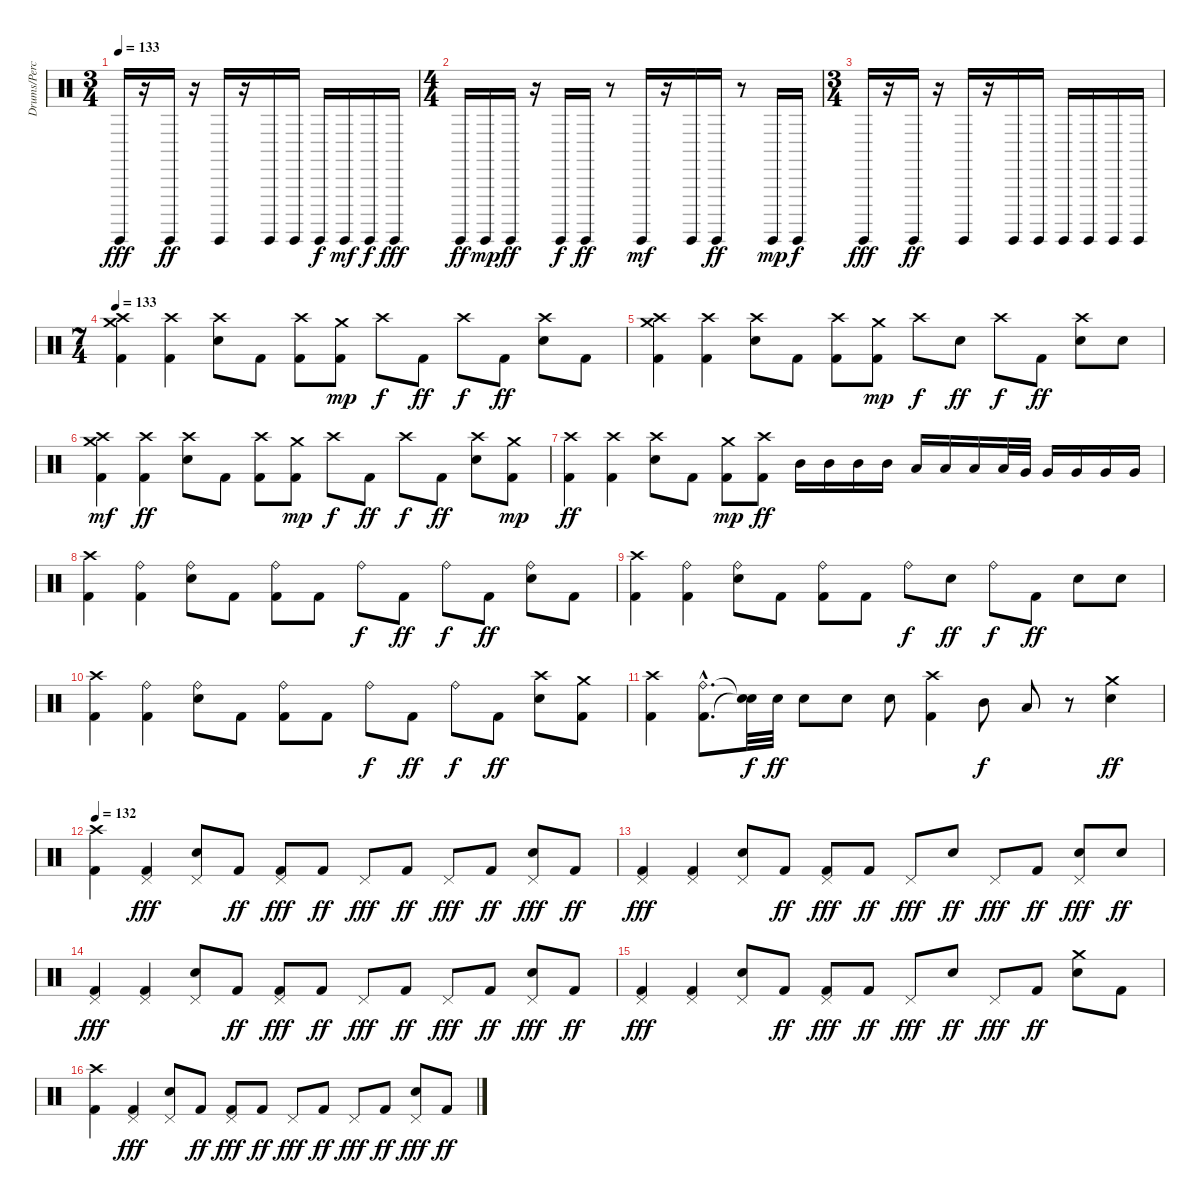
\track ("Drums/Percussion" "Drums/Perc") {instrument percussion}
\staff {score}
\articulation defaults
\ts (3 4)
\tempo 133
\clef neutral
\ks c "Guiro (hit)".16{dy fff}
r.16 "Guiro (hit)".16{dy ff} r.16 "Guiro (hit)".16 r.16 "Guiro (hit)".16 "Guiro (hit)".16 "Guiro (hit)".16{dy f} "Guiro (hit)".16{dy mf} "Guiro (hit)".16{dy f} "Guiro (hit)".16{dy fff} |
\ts (4 4)
"Guiro (hit)".16{dy ff} "Guiro (hit)".16{dy mp} "Guiro (hit)".16{dy ff} r.16 "Guiro (hit)".16{dy f} "Guiro (hit)".16{dy ff} r.8 "Guiro (hit)".16{dy mf} r.16 "Guiro (hit)".16 "Guiro (hit)".16{dy ff} r.8 "Guiro (hit)".16{dy mp} "Guiro (hit)".16{dy f} |
\ts (3 4)
"Guiro (hit)".16{dy fff} r.16 "Guiro (hit)".16{dy ff} r.16 "Guiro (hit)".16 r.16 "Guiro (hit)".16 "Guiro (hit)".16 "Guiro (hit)".16 "Guiro (hit)".16 "Guiro (hit)".16 "Guiro (hit)".16 |
\ts (7 4)
\tempo 133
("Kick (hit) 2" "Crash high (hit)" "Crash medium (hit)").4 ("Kick (hit) 2" "Crash high (hit)").4 ("Snare (hit) 2" "Crash high (hit)").8 "Kick (hit) 2".8 ("Kick (hit) 2" "Crash high (hit)").8 ("Kick (hit) 2" "Crash medium (hit)").8{dy mp} "Crash high (hit)".8{dy f} "Kick (hit) 2".8{dy ff} "Crash high (hit)".8{dy f} "Kick (hit) 2".8{dy ff} ("Snare (hit) 2" "Crash high (hit)").8 "Kick (hit) 2".8 |
("Kick (hit) 2" "Crash high (hit)" "Crash medium (hit)").4 ("Kick (hit) 2" "Crash high (hit)").4 ("Snare (hit) 2" "Crash high (hit)").8 "Kick (hit) 2".8 ("Kick (hit) 2" "Crash high (hit)").8 ("Kick (hit) 2" "Crash medium (hit)").8{dy mp} "Crash high (hit)".8{dy f} "Snare (hit) 2".8{dy ff} "Crash high (hit)".8{dy f} "Kick (hit) 2".8{dy ff} ("Snare (hit) 2" "Crash high (hit)").8 "Snare (hit) 2".8 |
("Kick (hit) 2" "Crash high (hit)" "Crash medium (hit)").4{dy mf} ("Kick (hit) 2" "Crash high (hit)").4{dy ff} ("Snare (hit) 2" "Crash high (hit)").8 "Kick (hit) 2".8 ("Kick (hit) 2" "Crash high (hit)").8 ("Kick (hit) 2" "Crash medium (hit)").8{dy mp} "Crash high (hit)".8{dy f} "Kick (hit) 2".8{dy ff} "Crash high (hit)".8{dy f} "Kick (hit) 2".8{dy ff} ("Snare (hit) 2" "Crash high (hit)").8 ("Kick (hit) 2" "Crash medium (hit)").8{dy mp} |
("Kick (hit) 2" "Crash high (hit)").4{dy ff} ("Kick (hit) 2" "Crash high (hit)").4 ("Snare (hit) 2" "Crash high (hit)").8 "Kick (hit) 2".8 ("Kick (hit) 2" "Crash medium (hit)").8{dy mp} ("Kick (hit) 2" "Crash high (hit)").8{dy ff} "Mid Tom (hit)".16 "Mid Tom (hit)".16 "Mid Tom (hit)".16 "Mid Tom (hit)".16 "Low Tom (hit)".16 "Low Tom (hit)".16 "Low Tom (hit)".16 "Low Tom (hit)".32 "Very Low Tom (hit)".32 "Very Low Tom (hit)".16 "Very Low Tom (hit)".16 "Very Low Tom (hit)".16 "Very Low Tom (hit)".16 |
("Kick (hit) 2" "Crash high (hit)").4 ("Kick (hit) 2" "Ride (bell)").4 ("Snare (hit) 2" "Ride (bell)").8 "Kick (hit) 2".8 ("Kick (hit) 2" "Ride (bell)").8 "Kick (hit) 2".8 "Ride (bell)".8{dy f} "Kick (hit) 2".8{dy ff} "Ride (bell)".8{dy f} "Kick (hit) 2".8{dy ff} ("Snare (hit) 2" "Ride (bell)").8 "Kick (hit) 2".8 |
("Kick (hit) 2" "Crash high (hit)").4 ("Kick (hit) 2" "Ride (bell)").4 ("Snare (hit) 2" "Ride (bell)").8 "Kick (hit) 2".8 ("Kick (hit) 2" "Ride (bell)").8 "Kick (hit) 2".8 "Ride (bell)".8{dy f} "Snare (hit) 2".8{dy ff} "Ride (bell)".8{dy f} "Kick (hit) 2".8{dy ff} "Snare (hit) 2".8 "Snare (hit) 2".8 |
("Kick (hit) 2" "Crash high (hit)").4 ("Kick (hit) 2" "Ride (bell)").4 ("Snare (hit) 2" "Ride (bell)").8 "Kick (hit) 2".8 ("Kick (hit) 2" "Ride (bell)").8 "Kick (hit) 2".8 "Ride (bell)".8{dy f} "Kick (hit) 2".8{dy ff} "Ride (bell)".8{dy f} "Kick (hit) 2".8{dy ff} ("Snare (hit) 2" "Crash high (hit)").8 ("Kick (hit) 2" "Crash medium (hit)").8 |
("Kick (hit) 2" "Crash high (hit)").4 ("Kick (hit) 2"{hac} "Ride (bell)"{hac}).8{d} ("Snare (hit)"{t} "Snare (hit)"{t}).32{dy f} "Snare (hit) 2".32{dy ff} "Snare (hit) 2".8 "Snare (hit) 2".8 "Snare (hit) 2".8 ("Kick (hit) 2" "Crash high (hit)").4 "Mid Tom (hit)".8{dy f} "Low Tom (hit)".8 r.8 ("Snare (hit) 2" "Crash medium (hit)").4{dy ff} |
\tempo 132
("Kick (hit) 2" "Crash high (hit)").4 ("Kick (hit) 2" "Pedal Hi-Hat (hit)").4{dy fff} ("Snare (hit) 2" "Pedal Hi-Hat (hit)").8 "Kick (hit) 2".8{dy ff} ("Kick (hit) 2" "Pedal Hi-Hat (hit)").8{dy fff} "Kick (hit) 2".8{dy ff} "Pedal Hi-Hat (hit)".8{dy fff} "Kick (hit) 2".8{dy ff} "Pedal Hi-Hat (hit)".8{dy fff} "Kick (hit) 2".8{dy ff} ("Snare (hit) 2" "Pedal Hi-Hat (hit)").8{dy fff} "Kick (hit) 2".8{dy ff} |
("Kick (hit) 2" "Pedal Hi-Hat (hit)").4{dy fff} ("Kick (hit) 2" "Pedal Hi-Hat (hit)").4 ("Snare (hit) 2" "Pedal Hi-Hat (hit)").8 "Kick (hit) 2".8{dy ff} ("Kick (hit) 2" "Pedal Hi-Hat (hit)").8{dy fff} "Kick (hit) 2".8{dy ff} "Pedal Hi-Hat (hit)".8{dy fff} "Snare (hit) 2".8{dy ff} "Pedal Hi-Hat (hit)".8{dy fff} "Kick (hit) 2".8{dy ff} ("Snare (hit) 2" "Pedal Hi-Hat (hit)").8{dy fff} "Snare (hit) 2".8{dy ff} |
("Kick (hit) 2" "Pedal Hi-Hat (hit)").4{dy fff} ("Kick (hit) 2" "Pedal Hi-Hat (hit)").4 ("Snare (hit) 2" "Pedal Hi-Hat (hit)").8 "Kick (hit) 2".8{dy ff} ("Kick (hit) 2" "Pedal Hi-Hat (hit)").8{dy fff} "Kick (hit) 2".8{dy ff} "Pedal Hi-Hat (hit)".8{dy fff} "Kick (hit) 2".8{dy ff} "Pedal Hi-Hat (hit)".8{dy fff} "Kick (hit) 2".8{dy ff} ("Snare (hit) 2" "Pedal Hi-Hat (hit)").8{dy fff} "Kick (hit) 2".8{dy ff} |
("Kick (hit) 2" "Pedal Hi-Hat (hit)").4{dy fff} ("Kick (hit) 2" "Pedal Hi-Hat (hit)").4 ("Snare (hit) 2" "Pedal Hi-Hat (hit)").8 "Kick (hit) 2".8{dy ff} ("Kick (hit) 2" "Pedal Hi-Hat (hit)").8{dy fff} "Kick (hit) 2".8{dy ff} "Pedal Hi-Hat (hit)".8{dy fff} "Snare (hit) 2".8{dy ff} "Pedal Hi-Hat (hit)".8{dy fff} "Kick (hit) 2".8{dy ff} ("Snare (hit) 2" "Crash medium (hit)").8 "Kick (hit) 2".8 |
("Kick (hit) 2" "Crash high (hit)").4 ("Kick (hit) 2" "Pedal Hi-Hat (hit)").4{dy fff} ("Snare (hit) 2" "Pedal Hi-Hat (hit)").8 "Kick (hit) 2".8{dy ff} ("Kick (hit) 2" "Pedal Hi-Hat (hit)").8{dy fff} "Kick (hit) 2".8{dy ff} "Pedal Hi-Hat (hit)".8{dy fff} "Kick (hit) 2".8{dy ff} "Pedal Hi-Hat (hit)".8{dy fff} "Kick (hit) 2".8{dy ff} ("Snare (hit) 2" "Pedal Hi-Hat (hit)").8{dy fff} "Kick (hit) 2".8{dy ff}
